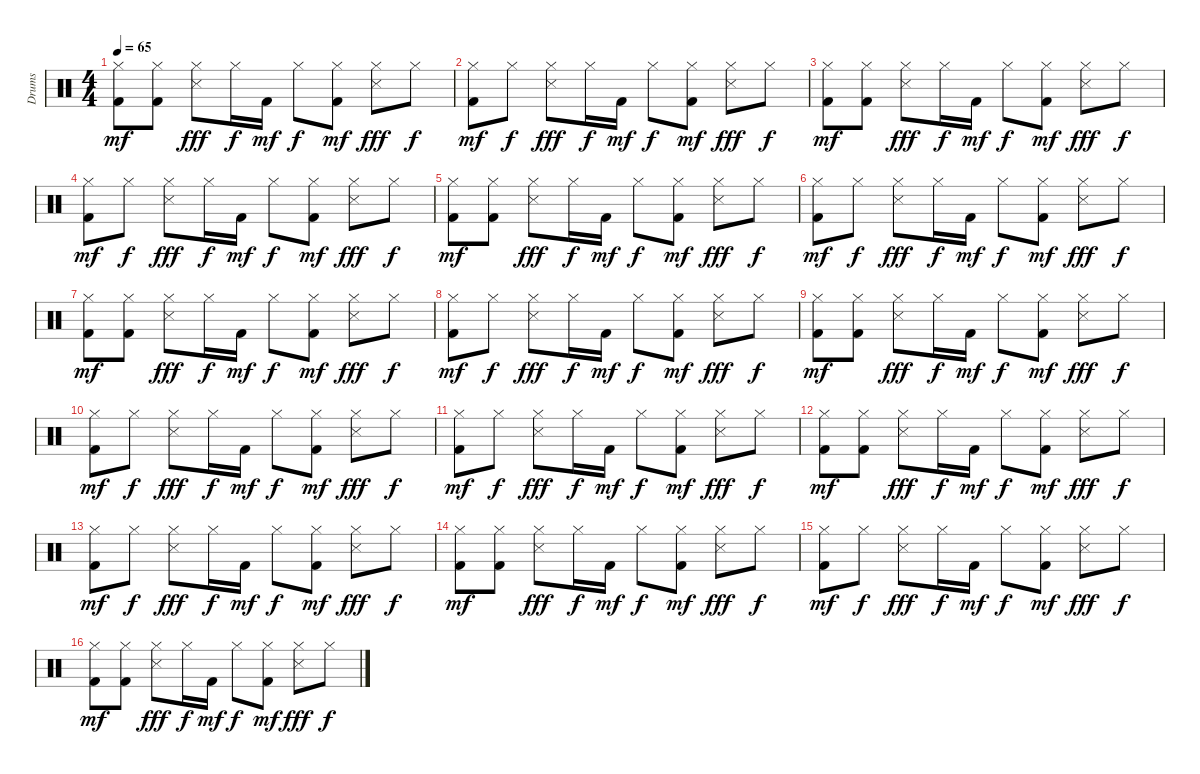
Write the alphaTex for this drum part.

\track ("Drums" "Drums") {instrument percussion}
\staff {score}
\articulation defaults
\ts (4 4)
\tempo 65
\clef neutral
\ks c
("Hi-Hat (closed)" "Kick (hit) 2").8{dy mf} ("Hi-Hat (closed)" "Kick (hit) 2").8 ("Hi-Hat (closed)" "Snare (side stick) 3").8{dy fff} "Hi-Hat (closed)".16{dy f} "Kick (hit) 2".16{dy mf} "Hi-Hat (closed)".8{dy f} ("Hi-Hat (closed)" "Kick (hit) 2").8{dy mf} ("Hi-Hat (closed)" "Snare (side stick) 3").8{dy fff} "Hi-Hat (closed)".8{dy f} |
("Hi-Hat (closed)" "Kick (hit) 2").8{dy mf} "Hi-Hat (closed)".8{dy f} ("Hi-Hat (closed)" "Snare (side stick) 3").8{dy fff} "Hi-Hat (closed)".16{dy f} "Kick (hit) 2".16{dy mf} "Hi-Hat (closed)".8{dy f} ("Hi-Hat (closed)" "Kick (hit) 2").8{dy mf} ("Hi-Hat (closed)" "Snare (side stick) 3").8{dy fff} "Hi-Hat (closed)".8{dy f} |
("Hi-Hat (closed)" "Kick (hit) 2").8{dy mf} ("Hi-Hat (closed)" "Kick (hit) 2").8 ("Hi-Hat (closed)" "Snare (side stick) 3").8{dy fff} "Hi-Hat (closed)".16{dy f} "Kick (hit) 2".16{dy mf} "Hi-Hat (closed)".8{dy f} ("Hi-Hat (closed)" "Kick (hit) 2").8{dy mf} ("Hi-Hat (closed)" "Snare (side stick) 3").8{dy fff} "Hi-Hat (closed)".8{dy f} |
("Hi-Hat (closed)" "Kick (hit) 2").8{dy mf} "Hi-Hat (closed)".8{dy f} ("Hi-Hat (closed)" "Snare (side stick) 3").8{dy fff} "Hi-Hat (closed)".16{dy f} "Kick (hit) 2".16{dy mf} "Hi-Hat (closed)".8{dy f} ("Hi-Hat (closed)" "Kick (hit) 2").8{dy mf} ("Hi-Hat (closed)" "Snare (side stick) 3").8{dy fff} "Hi-Hat (closed)".8{dy f} |
("Hi-Hat (closed)" "Kick (hit) 2").8{dy mf} ("Hi-Hat (closed)" "Kick (hit) 2").8 ("Hi-Hat (closed)" "Snare (side stick) 3").8{dy fff} "Hi-Hat (closed)".16{dy f} "Kick (hit) 2".16{dy mf} "Hi-Hat (closed)".8{dy f} ("Hi-Hat (closed)" "Kick (hit) 2").8{dy mf} ("Hi-Hat (closed)" "Snare (side stick) 3").8{dy fff} "Hi-Hat (closed)".8{dy f} |
("Hi-Hat (closed)" "Kick (hit) 2").8{dy mf} "Hi-Hat (closed)".8{dy f} ("Hi-Hat (closed)" "Snare (side stick) 3").8{dy fff} "Hi-Hat (closed)".16{dy f} "Kick (hit) 2".16{dy mf} "Hi-Hat (closed)".8{dy f} ("Hi-Hat (closed)" "Kick (hit) 2").8{dy mf} ("Hi-Hat (closed)" "Snare (side stick) 3").8{dy fff} "Hi-Hat (closed)".8{dy f} |
("Hi-Hat (closed)" "Kick (hit) 2").8{dy mf} ("Hi-Hat (closed)" "Kick (hit) 2").8 ("Hi-Hat (closed)" "Snare (side stick) 3").8{dy fff} "Hi-Hat (closed)".16{dy f} "Kick (hit) 2".16{dy mf} "Hi-Hat (closed)".8{dy f} ("Hi-Hat (closed)" "Kick (hit) 2").8{dy mf} ("Hi-Hat (closed)" "Snare (side stick) 3").8{dy fff} "Hi-Hat (closed)".8{dy f} |
("Hi-Hat (closed)" "Kick (hit) 2").8{dy mf} "Hi-Hat (closed)".8{dy f} ("Hi-Hat (closed)" "Snare (side stick) 3").8{dy fff} "Hi-Hat (closed)".16{dy f} "Kick (hit) 2".16{dy mf} "Hi-Hat (closed)".8{dy f} ("Hi-Hat (closed)" "Kick (hit) 2").8{dy mf} ("Hi-Hat (closed)" "Snare (side stick) 3").8{dy fff} "Hi-Hat (closed)".8{dy f} |
("Hi-Hat (closed)" "Kick (hit) 2").8{dy mf} ("Hi-Hat (closed)" "Kick (hit) 2").8 ("Hi-Hat (closed)" "Snare (side stick) 3").8{dy fff} "Hi-Hat (closed)".16{dy f} "Kick (hit) 2".16{dy mf} "Hi-Hat (closed)".8{dy f} ("Hi-Hat (closed)" "Kick (hit) 2").8{dy mf} ("Hi-Hat (closed)" "Snare (side stick) 3").8{dy fff} "Hi-Hat (closed)".8{dy f} |
("Hi-Hat (closed)" "Kick (hit) 2").8{dy mf} "Hi-Hat (closed)".8{dy f} ("Hi-Hat (closed)" "Snare (side stick) 3").8{dy fff} "Hi-Hat (closed)".16{dy f} "Kick (hit) 2".16{dy mf} "Hi-Hat (closed)".8{dy f} ("Hi-Hat (closed)" "Kick (hit) 2").8{dy mf} ("Hi-Hat (closed)" "Snare (side stick) 3").8{dy fff} "Hi-Hat (closed)".8{dy f} |
("Hi-Hat (closed)" "Kick (hit) 2").8{dy mf} "Hi-Hat (closed)".8{dy f} ("Hi-Hat (closed)" "Snare (side stick) 3").8{dy fff} "Hi-Hat (closed)".16{dy f} "Kick (hit) 2".16{dy mf} "Hi-Hat (closed)".8{dy f} ("Hi-Hat (closed)" "Kick (hit) 2").8{dy mf} ("Hi-Hat (closed)" "Snare (side stick) 3").8{dy fff} "Hi-Hat (closed)".8{dy f} |
("Hi-Hat (closed)" "Kick (hit) 2").8{dy mf} ("Hi-Hat (closed)" "Kick (hit) 2").8 ("Hi-Hat (closed)" "Snare (side stick) 3").8{dy fff} "Hi-Hat (closed)".16{dy f} "Kick (hit) 2".16{dy mf} "Hi-Hat (closed)".8{dy f} ("Hi-Hat (closed)" "Kick (hit) 2").8{dy mf} ("Hi-Hat (closed)" "Snare (side stick) 3").8{dy fff} "Hi-Hat (closed)".8{dy f} |
("Hi-Hat (closed)" "Kick (hit) 2").8{dy mf} "Hi-Hat (closed)".8{dy f} ("Hi-Hat (closed)" "Snare (side stick) 3").8{dy fff} "Hi-Hat (closed)".16{dy f} "Kick (hit) 2".16{dy mf} "Hi-Hat (closed)".8{dy f} ("Hi-Hat (closed)" "Kick (hit) 2").8{dy mf} ("Hi-Hat (closed)" "Snare (side stick) 3").8{dy fff} "Hi-Hat (closed)".8{dy f} |
("Hi-Hat (closed)" "Kick (hit) 2").8{dy mf} ("Hi-Hat (closed)" "Kick (hit) 2").8 ("Hi-Hat (closed)" "Snare (side stick) 3").8{dy fff} "Hi-Hat (closed)".16{dy f} "Kick (hit) 2".16{dy mf} "Hi-Hat (closed)".8{dy f} ("Hi-Hat (closed)" "Kick (hit) 2").8{dy mf} ("Hi-Hat (closed)" "Snare (side stick) 3").8{dy fff} "Hi-Hat (closed)".8{dy f} |
("Hi-Hat (closed)" "Kick (hit) 2").8{dy mf} "Hi-Hat (closed)".8{dy f} ("Hi-Hat (closed)" "Snare (side stick) 3").8{dy fff} "Hi-Hat (closed)".16{dy f} "Kick (hit) 2".16{dy mf} "Hi-Hat (closed)".8{dy f} ("Hi-Hat (closed)" "Kick (hit) 2").8{dy mf} ("Hi-Hat (closed)" "Snare (side stick) 3").8{dy fff} "Hi-Hat (closed)".8{dy f} |
("Hi-Hat (closed)" "Kick (hit) 2").8{dy mf} ("Hi-Hat (closed)" "Kick (hit) 2").8 ("Hi-Hat (closed)" "Snare (side stick) 3").8{dy fff} "Hi-Hat (closed)".16{dy f} "Kick (hit) 2".16{dy mf} "Hi-Hat (closed)".8{dy f} ("Hi-Hat (closed)" "Kick (hit) 2").8{dy mf} ("Hi-Hat (closed)" "Snare (side stick) 3").8{dy fff} "Hi-Hat (closed)".8{dy f}
